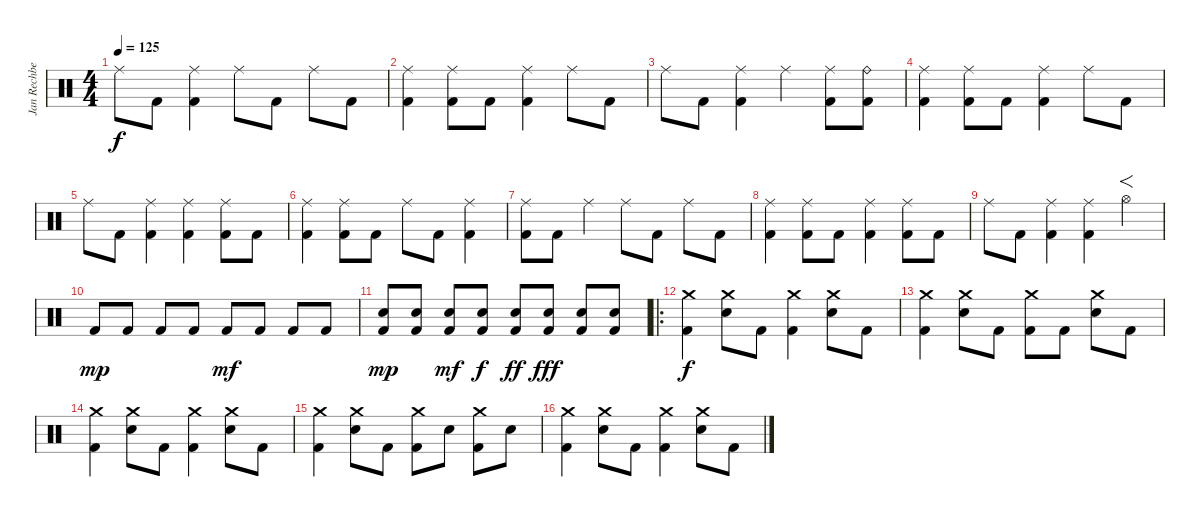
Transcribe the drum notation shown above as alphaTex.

\track ("Jan Rechberger" "Jan Rechbe") {instrument percussion}
\staff {score}
\articulation defaults
\ts (4 4)
\tempo 125
\clef neutral
\ks c "Ride (middle)".8{dy f} "Kick (hit) 2".8
("Ride (middle)" "Kick (hit) 2").4 "Ride (middle)".8 "Kick (hit) 2".8 "Ride (middle)".8 "Kick (hit) 2".8 |
("Ride (middle)" "Kick (hit) 2").4 ("Ride (middle)" "Kick (hit) 2").8 "Kick (hit) 2".8 ("Ride (middle)" "Kick (hit) 2").4 "Ride (middle)".8 "Kick (hit) 2".8 |
"Ride (middle)".8 "Kick (hit) 2".8 ("Ride (middle)" "Kick (hit) 2").4 "Ride (middle)".4 ("Ride (middle)" "Kick (hit) 2").8 ("Ride (bell)" "Kick (hit) 2").8 |
("Ride (middle)" "Kick (hit) 2").4 ("Ride (middle)" "Kick (hit) 2").8 "Kick (hit) 2".8 ("Ride (middle)" "Kick (hit) 2").4 "Ride (middle)".8 "Kick (hit) 2".8 |
"Ride (middle)".8 "Kick (hit) 2".8 ("Ride (middle)" "Kick (hit) 2").4 ("Ride (middle)" "Kick (hit) 2").4 ("Ride (middle)" "Kick (hit) 2").8 "Kick (hit) 2".8 |
("Ride (middle)" "Kick (hit) 2").4 ("Ride (middle)" "Kick (hit) 2").8 "Kick (hit) 2".8 "Ride (middle)".8 "Kick (hit) 2".8 ("Ride (middle)" "Kick (hit) 2").4 |
("Ride (middle)" "Kick (hit) 2").8 "Kick (hit) 2".8 "Ride (middle)".4 "Ride (middle)".8 "Kick (hit) 2".8 "Ride (middle)".8 "Kick (hit) 2".8 |
("Ride (middle)" "Kick (hit) 2").4 ("Ride (middle)" "Kick (hit) 2").8 "Kick (hit) 2".8 ("Ride (middle)" "Kick (hit) 2").4 ("Ride (middle)" "Kick (hit) 2").8 "Kick (hit) 2".8 |
"Ride (middle)".8 "Kick (hit) 2".8 ("Ride (middle)" "Kick (hit) 2").4 ("Ride (middle)" "Kick (hit) 2").4 "Hi-Hat (open)".4{f} |
"Kick (hit) 2".8{dy mp} "Kick (hit) 2".8 "Kick (hit) 2".8 "Kick (hit) 2".8 "Kick (hit) 2".8{dy mf} "Kick (hit) 2".8 "Kick (hit) 2".8 "Kick (hit) 2".8 |
("Electric Snare (hit)" "Kick (hit) 2").8{dy mp} ("Electric Snare (hit)" "Kick (hit) 2").8 ("Electric Snare (hit)" "Kick (hit) 2").8{dy mf} ("Electric Snare (hit)" "Kick (hit) 2").8{dy f} ("Electric Snare (hit)" "Kick (hit) 2").8{dy ff} ("Electric Snare (hit)" "Kick (hit) 2").8{dy fff} ("Electric Snare (hit)" "Kick (hit) 2").8 ("Electric Snare (hit)" "Kick (hit) 2").8 |
\ro
("Crash medium (hit)" "Kick (hit) 2").4{dy f} ("Crash medium (hit)" "Electric Snare (hit)").8 "Kick (hit) 2".8 ("Crash medium (hit)" "Kick (hit) 2").4 ("Crash medium (hit)" "Electric Snare (hit)").8 "Kick (hit) 2".8 |
("Crash medium (hit)" "Kick (hit) 2").4 ("Crash medium (hit)" "Electric Snare (hit)").8 "Kick (hit) 2".8 ("Crash medium (hit)" "Kick (hit) 2").8 "Kick (hit) 2".8 ("Crash medium (hit)" "Electric Snare (hit)").8 "Kick (hit) 2".8 |
("Crash medium (hit)" "Kick (hit) 2").4 ("Crash medium (hit)" "Electric Snare (hit)").8 "Kick (hit) 2".8 ("Crash medium (hit)" "Kick (hit) 2").4 ("Crash medium (hit)" "Electric Snare (hit)").8 "Kick (hit) 2".8 |
("Crash medium (hit)" "Kick (hit) 2").4 ("Crash medium (hit)" "Electric Snare (hit)").8 "Kick (hit) 2".8 ("Crash medium (hit)" "Kick (hit) 2").8 "Electric Snare (hit)".8 ("Crash medium (hit)" "Kick (hit) 2").8 "Electric Snare (hit)".8 |
("Crash medium (hit)" "Kick (hit) 2").4 ("Crash medium (hit)" "Electric Snare (hit)").8 "Kick (hit) 2".8 ("Crash medium (hit)" "Kick (hit) 2").4 ("Crash medium (hit)" "Electric Snare (hit)").8 "Kick (hit) 2".8
